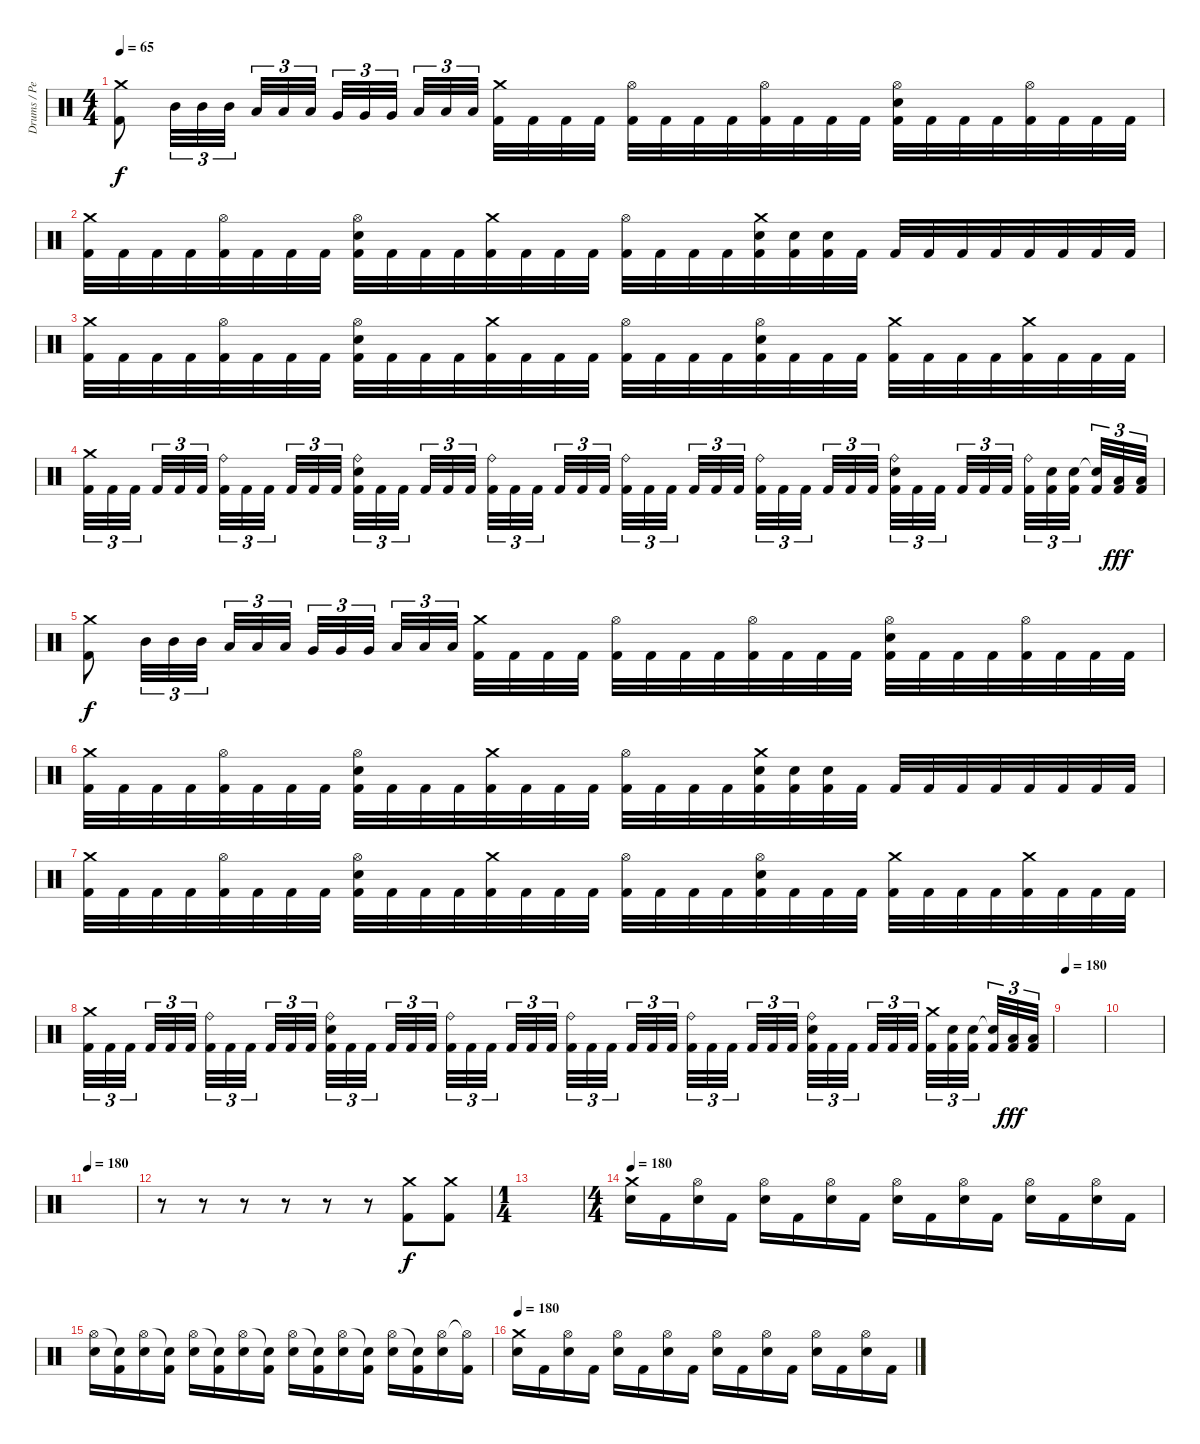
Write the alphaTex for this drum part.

\track ("Drums / Percussion" "Drums / Pe") {instrument percussion}
\staff {score}
\articulation defaults
\ts (4 4)
\tempo 65
\clef neutral
\ks c
("Crash medium (hit)" "Kick (hit) 2").8{dy f} "Mid Tom (hit)".32{tu (3 2)} "Mid Tom (hit)".32{tu (3 2)} "Mid Tom (hit)".32{tu (3 2)} "Low Tom (hit)".32{tu (3 2)} "Low Tom (hit)".32{tu (3 2)} "Low Tom (hit)".32{tu (3 2)} "Very Low Tom (hit)".32{tu (3 2)} "Very Low Tom (hit)".32{tu (3 2)} "Very Low Tom (hit)".32{tu (3 2)} "Low Floor Tom (hit)".32{tu (3 2)} "Low Floor Tom (hit)".32{tu (3 2)} "Low Floor Tom (hit)".32{tu (3 2)} ("Crash medium (hit)" "Kick (hit) 2").32 "Kick (hit) 2".32 "Kick (hit) 2".32 "Kick (hit) 2".32 ("Hi-Hat (open)" "Kick (hit) 2").32 "Kick (hit) 2".32 "Kick (hit) 2".32 "Kick (hit) 2".32 ("Hi-Hat (open)" "Kick (hit) 2").32 "Kick (hit) 2".32 "Kick (hit) 2".32 "Kick (hit) 2".32 ("Hi-Hat (open)" "Electric Snare (hit)" "Kick (hit) 2").32 "Kick (hit) 2".32 "Kick (hit) 2".32 "Kick (hit) 2".32 ("Hi-Hat (open)" "Kick (hit) 2").32 "Kick (hit) 2".32 "Kick (hit) 2".32 "Kick (hit) 2".32 |
("Crash medium (hit)" "Kick (hit) 2").32 "Kick (hit) 2".32 "Kick (hit) 2".32 "Kick (hit) 2".32 ("Hi-Hat (open)" "Kick (hit) 2").32 "Kick (hit) 2".32 "Kick (hit) 2".32 "Kick (hit) 2".32 ("Hi-Hat (open)" "Electric Snare (hit)" "Kick (hit) 2").32 "Kick (hit) 2".32 "Kick (hit) 2".32 "Kick (hit) 2".32 ("Crash medium (hit)" "Kick (hit) 2").32 "Kick (hit) 2".32 "Kick (hit) 2".32 "Kick (hit) 2".32 ("Hi-Hat (open)" "Kick (hit) 2").32 "Kick (hit) 2".32 "Kick (hit) 2".32 "Kick (hit) 2".32 ("Crash medium (hit)" "Electric Snare (hit)" "Kick (hit) 2").32 ("Electric Snare (hit)" "Kick (hit) 2").32 ("Electric Snare (hit)" "Kick (hit) 2").32 "Kick (hit) 2".32 "Kick (hit) 2".32 "Kick (hit) 2".32 "Kick (hit) 2".32 "Kick (hit) 2".32 "Kick (hit) 2".32 "Kick (hit) 2".32 "Kick (hit) 2".32 "Kick (hit) 2".32 |
("Crash medium (hit)" "Kick (hit) 2").32 "Kick (hit) 2".32 "Kick (hit) 2".32 "Kick (hit) 2".32 ("Hi-Hat (open)" "Kick (hit) 2").32 "Kick (hit) 2".32 "Kick (hit) 2".32 "Kick (hit) 2".32 ("Hi-Hat (open)" "Electric Snare (hit)" "Kick (hit) 2").32 "Kick (hit) 2".32 "Kick (hit) 2".32 "Kick (hit) 2".32 ("Crash medium (hit)" "Kick (hit) 2").32 "Kick (hit) 2".32 "Kick (hit) 2".32 "Kick (hit) 2".32 ("Hi-Hat (open)" "Kick (hit) 2").32 "Kick (hit) 2".32 "Kick (hit) 2".32 "Kick (hit) 2".32 ("Hi-Hat (open)" "Electric Snare (hit)" "Kick (hit) 2").32 "Kick (hit) 2".32 "Kick (hit) 2".32 "Kick (hit) 2".32 ("Crash medium (hit)" "Kick (hit) 2").32 "Kick (hit) 2".32 "Kick (hit) 2".32 "Kick (hit) 2".32 ("Crash medium (hit)" "Kick (hit) 2").32 "Kick (hit) 2".32 "Kick (hit) 2".32 "Kick (hit) 2".32 |
("Crash medium (hit)" "Kick (hit) 2").32{tu (3 2)} "Kick (hit) 2".32{tu (3 2)} "Kick (hit) 2".32{tu (3 2)} "Kick (hit) 2".32{tu (3 2)} "Kick (hit) 2".32{tu (3 2)} "Kick (hit) 2".32{tu (3 2)} ("Ride (bell)" "Kick (hit) 2").32{tu (3 2)} "Kick (hit) 2".32{tu (3 2)} "Kick (hit) 2".32{tu (3 2)} "Kick (hit) 2".32{tu (3 2)} "Kick (hit) 2".32{tu (3 2)} "Kick (hit) 2".32{tu (3 2)} ("Ride (bell)" "Electric Snare (hit)" "Kick (hit) 2").32{tu (3 2)} "Kick (hit) 2".32{tu (3 2)} "Kick (hit) 2".32{tu (3 2)} "Kick (hit) 2".32{tu (3 2)} "Kick (hit) 2".32{tu (3 2)} "Kick (hit) 2".32{tu (3 2)} ("Ride (bell)" "Kick (hit) 2").32{tu (3 2)} "Kick (hit) 2".32{tu (3 2)} "Kick (hit) 2".32{tu (3 2)} "Kick (hit) 2".32{tu (3 2)} "Kick (hit) 2".32{tu (3 2)} "Kick (hit) 2".32{tu (3 2)} ("Ride (bell)" "Kick (hit) 2").32{tu (3 2)} "Kick (hit) 2".32{tu (3 2)} "Kick (hit) 2".32{tu (3 2)} "Kick (hit) 2".32{tu (3 2)} "Kick (hit) 2".32{tu (3 2)} "Kick (hit) 2".32{tu (3 2)} ("Ride (bell)" "Kick (hit) 2").32{tu (3 2)} "Kick (hit) 2".32{tu (3 2)} "Kick (hit) 2".32{tu (3 2)} "Kick (hit) 2".32{tu (3 2)} "Kick (hit) 2".32{tu (3 2)} "Kick (hit) 2".32{tu (3 2)} ("Ride (bell)" "Electric Snare (hit)" "Kick (hit) 2").32{tu (3 2)} "Kick (hit) 2".32{tu (3 2)} "Kick (hit) 2".32{tu (3 2)} "Kick (hit) 2".32{tu (3 2)} "Kick (hit) 2".32{tu (3 2)} "Kick (hit) 2".32{tu (3 2)} ("Ride (bell)" "Kick (hit) 2").32{tu (3 2)} ("Electric Snare (hit)" "Kick (hit) 2").32{tu (3 2)} ("Electric Snare (hit)" "Kick (hit) 2").32{tu (3 2)} ("Electric Snare (hit)"{t} "Kick (hit) 2").32{tu (3 2)} ("Low Tom (hit)" "Kick (hit) 2").32{tu (3 2) dy fff} ("Low Tom (hit)" "Kick (hit) 2").32{tu (3 2)} |
("Crash medium (hit)" "Kick (hit) 2").8{dy f} "Mid Tom (hit)".32{tu (3 2)} "Mid Tom (hit)".32{tu (3 2)} "Mid Tom (hit)".32{tu (3 2)} "Low Tom (hit)".32{tu (3 2)} "Low Tom (hit)".32{tu (3 2)} "Low Tom (hit)".32{tu (3 2)} "Very Low Tom (hit)".32{tu (3 2)} "Very Low Tom (hit)".32{tu (3 2)} "Very Low Tom (hit)".32{tu (3 2)} "Low Floor Tom (hit)".32{tu (3 2)} "Low Floor Tom (hit)".32{tu (3 2)} "Low Floor Tom (hit)".32{tu (3 2)} ("Crash medium (hit)" "Kick (hit) 2").32 "Kick (hit) 2".32 "Kick (hit) 2".32 "Kick (hit) 2".32 ("Hi-Hat (open)" "Kick (hit) 2").32 "Kick (hit) 2".32 "Kick (hit) 2".32 "Kick (hit) 2".32 ("Hi-Hat (open)" "Kick (hit) 2").32 "Kick (hit) 2".32 "Kick (hit) 2".32 "Kick (hit) 2".32 ("Hi-Hat (open)" "Electric Snare (hit)" "Kick (hit) 2").32 "Kick (hit) 2".32 "Kick (hit) 2".32 "Kick (hit) 2".32 ("Hi-Hat (open)" "Kick (hit) 2").32 "Kick (hit) 2".32 "Kick (hit) 2".32 "Kick (hit) 2".32 |
("Crash medium (hit)" "Kick (hit) 2").32 "Kick (hit) 2".32 "Kick (hit) 2".32 "Kick (hit) 2".32 ("Hi-Hat (open)" "Kick (hit) 2").32 "Kick (hit) 2".32 "Kick (hit) 2".32 "Kick (hit) 2".32 ("Hi-Hat (open)" "Electric Snare (hit)" "Kick (hit) 2").32 "Kick (hit) 2".32 "Kick (hit) 2".32 "Kick (hit) 2".32 ("Crash medium (hit)" "Kick (hit) 2").32 "Kick (hit) 2".32 "Kick (hit) 2".32 "Kick (hit) 2".32 ("Hi-Hat (open)" "Kick (hit) 2").32 "Kick (hit) 2".32 "Kick (hit) 2".32 "Kick (hit) 2".32 ("Crash medium (hit)" "Electric Snare (hit)" "Kick (hit) 2").32 ("Electric Snare (hit)" "Kick (hit) 2").32 ("Electric Snare (hit)" "Kick (hit) 2").32 "Kick (hit) 2".32 "Kick (hit) 2".32 "Kick (hit) 2".32 "Kick (hit) 2".32 "Kick (hit) 2".32 "Kick (hit) 2".32 "Kick (hit) 2".32 "Kick (hit) 2".32 "Kick (hit) 2".32 |
("Crash medium (hit)" "Kick (hit) 2").32 "Kick (hit) 2".32 "Kick (hit) 2".32 "Kick (hit) 2".32 ("Hi-Hat (open)" "Kick (hit) 2").32 "Kick (hit) 2".32 "Kick (hit) 2".32 "Kick (hit) 2".32 ("Hi-Hat (open)" "Electric Snare (hit)" "Kick (hit) 2").32 "Kick (hit) 2".32 "Kick (hit) 2".32 "Kick (hit) 2".32 ("Crash medium (hit)" "Kick (hit) 2").32 "Kick (hit) 2".32 "Kick (hit) 2".32 "Kick (hit) 2".32 ("Hi-Hat (open)" "Kick (hit) 2").32 "Kick (hit) 2".32 "Kick (hit) 2".32 "Kick (hit) 2".32 ("Hi-Hat (open)" "Electric Snare (hit)" "Kick (hit) 2").32 "Kick (hit) 2".32 "Kick (hit) 2".32 "Kick (hit) 2".32 ("Crash medium (hit)" "Kick (hit) 2").32 "Kick (hit) 2".32 "Kick (hit) 2".32 "Kick (hit) 2".32 ("Crash medium (hit)" "Kick (hit) 2").32 "Kick (hit) 2".32 "Kick (hit) 2".32 "Kick (hit) 2".32 |
("Crash medium (hit)" "Kick (hit) 2").32{tu (3 2)} "Kick (hit) 2".32{tu (3 2)} "Kick (hit) 2".32{tu (3 2)} "Kick (hit) 2".32{tu (3 2)} "Kick (hit) 2".32{tu (3 2)} "Kick (hit) 2".32{tu (3 2)} ("Ride (bell)" "Kick (hit) 2").32{tu (3 2)} "Kick (hit) 2".32{tu (3 2)} "Kick (hit) 2".32{tu (3 2)} "Kick (hit) 2".32{tu (3 2)} "Kick (hit) 2".32{tu (3 2)} "Kick (hit) 2".32{tu (3 2)} ("Ride (bell)" "Electric Snare (hit)" "Kick (hit) 2").32{tu (3 2)} "Kick (hit) 2".32{tu (3 2)} "Kick (hit) 2".32{tu (3 2)} "Kick (hit) 2".32{tu (3 2)} "Kick (hit) 2".32{tu (3 2)} "Kick (hit) 2".32{tu (3 2)} ("Ride (bell)" "Kick (hit) 2").32{tu (3 2)} "Kick (hit) 2".32{tu (3 2)} "Kick (hit) 2".32{tu (3 2)} "Kick (hit) 2".32{tu (3 2)} "Kick (hit) 2".32{tu (3 2)} "Kick (hit) 2".32{tu (3 2)} ("Ride (bell)" "Kick (hit) 2").32{tu (3 2)} "Kick (hit) 2".32{tu (3 2)} "Kick (hit) 2".32{tu (3 2)} "Kick (hit) 2".32{tu (3 2)} "Kick (hit) 2".32{tu (3 2)} "Kick (hit) 2".32{tu (3 2)} ("Ride (bell)" "Kick (hit) 2").32{tu (3 2)} "Kick (hit) 2".32{tu (3 2)} "Kick (hit) 2".32{tu (3 2)} "Kick (hit) 2".32{tu (3 2)} "Kick (hit) 2".32{tu (3 2)} "Kick (hit) 2".32{tu (3 2)} ("Ride (bell)" "Electric Snare (hit)" "Kick (hit) 2").32{tu (3 2)} "Kick (hit) 2".32{tu (3 2)} "Kick (hit) 2".32{tu (3 2)} "Kick (hit) 2".32{tu (3 2)} "Kick (hit) 2".32{tu (3 2)} "Kick (hit) 2".32{tu (3 2)} ("Crash medium (hit)" "Kick (hit) 2").32{tu (3 2)} ("Electric Snare (hit)" "Kick (hit) 2").32{tu (3 2)} ("Electric Snare (hit)" "Kick (hit) 2").32{tu (3 2)} ("Electric Snare (hit)"{t} "Kick (hit) 2").32{tu (3 2)} ("Low Tom (hit)" "Kick (hit) 2").32{tu (3 2) dy fff} ("Low Tom (hit)" "Kick (hit) 2").32{tu (3 2)} |
\tempo 180
|
|
\tempo 180
|
r.8 r.8 r.8 r.8 r.8 r.8 ("Crash medium (hit)" "Kick (hit) 2").8{dy f} ("Crash medium (hit)" "Kick (hit) 2").8 |
\ts (1 4)
|
\ts (4 4)
\tempo 180
("Crash medium (hit)" "Electric Snare (hit)").16 "Kick (hit) 2".16 ("Hi-Hat (open)" "Electric Snare (hit)").16 "Kick (hit) 2".16 ("Hi-Hat (open)" "Electric Snare (hit)").16 "Kick (hit) 2".16 ("Hi-Hat (open)" "Electric Snare (hit)").16 "Kick (hit) 2".16 ("Hi-Hat (open)" "Electric Snare (hit)").16 "Kick (hit) 2".16 ("Hi-Hat (open)" "Electric Snare (hit)").16 "Kick (hit) 2".16 ("Hi-Hat (open)" "Electric Snare (hit)").16 "Kick (hit) 2".16 ("Hi-Hat (open)" "Electric Snare (hit)").16 "Kick (hit) 2".16 |
("Hi-Hat (open)" "Electric Snare (hit)").16 ("Snare (hit)"{t} "Kick (hit) 2").16 ("Hi-Hat (open)" "Electric Snare (hit)").16 ("Snare (hit)"{t} "Kick (hit) 2").16 ("Hi-Hat (open)" "Electric Snare (hit)").16 ("Snare (hit)"{t} "Kick (hit) 2").16 ("Hi-Hat (open)" "Electric Snare (hit)").16 ("Snare (hit)"{t} "Kick (hit) 2").16 ("Hi-Hat (open)" "Electric Snare (hit)").16 ("Snare (hit)"{t} "Kick (hit) 2").16 ("Hi-Hat (open)" "Electric Snare (hit)").16 ("Snare (hit)"{t} "Kick (hit) 2").16 ("Hi-Hat (open)" "Electric Snare (hit)").16 ("Snare (hit)"{t} "Kick (hit) 2").16 ("Hi-Hat (open)" "Electric Snare (hit)").16 ("Hi-Hat (open)"{t} "Kick (hit) 2").16 |
\tempo 180
("Crash medium (hit)" "Electric Snare (hit)").16 "Kick (hit) 2".16 ("Hi-Hat (open)" "Electric Snare (hit)").16 "Kick (hit) 2".16 ("Hi-Hat (open)" "Electric Snare (hit)").16 "Kick (hit) 2".16 ("Hi-Hat (open)" "Electric Snare (hit)").16 "Kick (hit) 2".16 ("Hi-Hat (open)" "Electric Snare (hit)").16 "Kick (hit) 2".16 ("Hi-Hat (open)" "Electric Snare (hit)").16 "Kick (hit) 2".16 ("Hi-Hat (open)" "Electric Snare (hit)").16 "Kick (hit) 2".16 ("Hi-Hat (open)" "Electric Snare (hit)").16 "Kick (hit) 2".16
